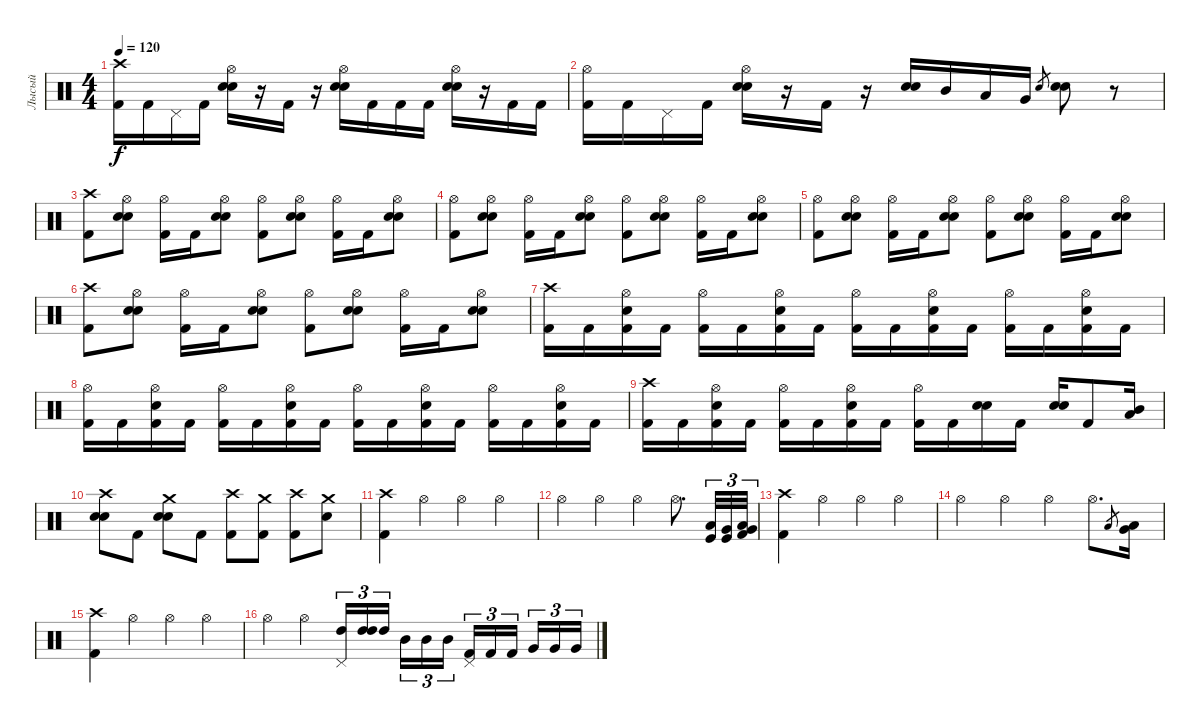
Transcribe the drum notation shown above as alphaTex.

\track ("Лысый" "Лысый") {instrument percussion}
\staff {score}
\articulation defaults
\ts (4 4)
\tempo 120
\clef neutral
\ks c
("Kick (hit) 2" "Crash high (hit)").16{dy f} "Kick (hit) 2".16 "Pedal Hi-Hat (hit)".16 "Kick (hit) 2".16 ("Snare (hit) 2" "Electric Snare (hit)" "Hi-Hat (open)").16 r.16 "Kick (hit) 2".16 r.16 ("Snare (hit) 2" "Electric Snare (hit)" "Hi-Hat (open)").16 "Kick (hit) 2".16 "Kick (hit) 2".16 "Kick (hit) 2".16 ("Snare (hit) 2" "Electric Snare (hit)" "Hi-Hat (open)").16 r.16 "Kick (hit) 2".16 "Kick (hit) 2".16 |
("Kick (hit) 2" "Hi-Hat (open)").16 "Kick (hit) 2".16 "Pedal Hi-Hat (hit)".16 "Kick (hit) 2".16 ("Snare (hit) 2" "Electric Snare (hit)" "Hi-Hat (open)").16 r.16 "Kick (hit) 2".16 r.16 ("Snare (hit) 2" "Electric Snare (hit)").16 "Mid Tom (hit)".16 "Low Tom (hit)".16 "Very Low Tom (hit)".16 "Snare (hit) 2".8{gr} ("Snare (hit) 2" "Electric Snare (hit)").8 r.8 |
("Kick (hit) 2" "Crash high (hit)").8 ("Snare (hit) 2" "Electric Snare (hit)" "Hi-Hat (open)").8 ("Kick (hit) 2" "Hi-Hat (open)").16 "Kick (hit) 2".16 ("Snare (hit) 2" "Electric Snare (hit)" "Hi-Hat (open)").8 ("Kick (hit) 2" "Hi-Hat (open)").8 ("Snare (hit) 2" "Electric Snare (hit)" "Hi-Hat (open)").8 ("Kick (hit) 2" "Hi-Hat (open)").16 "Kick (hit) 2".16 ("Snare (hit) 2" "Electric Snare (hit)" "Hi-Hat (open)").8 |
("Kick (hit) 2" "Hi-Hat (open)").8 ("Snare (hit) 2" "Electric Snare (hit)" "Hi-Hat (open)").8 ("Kick (hit) 2" "Hi-Hat (open)").16 "Kick (hit) 2".16 ("Snare (hit) 2" "Electric Snare (hit)" "Hi-Hat (open)").8 ("Kick (hit) 2" "Hi-Hat (open)").8 ("Snare (hit) 2" "Electric Snare (hit)" "Hi-Hat (open)").8 ("Kick (hit) 2" "Hi-Hat (open)").16 "Kick (hit) 2".16 ("Snare (hit) 2" "Electric Snare (hit)" "Hi-Hat (open)").8 |
("Kick (hit) 2" "Hi-Hat (open)").8 ("Snare (hit) 2" "Electric Snare (hit)" "Hi-Hat (open)").8 ("Kick (hit) 2" "Hi-Hat (open)").16 "Kick (hit) 2".16 ("Snare (hit) 2" "Electric Snare (hit)" "Hi-Hat (open)").8 ("Kick (hit) 2" "Hi-Hat (open)").8 ("Snare (hit) 2" "Electric Snare (hit)" "Hi-Hat (open)").8 ("Kick (hit) 2" "Hi-Hat (open)").16 "Kick (hit) 2".16 ("Snare (hit) 2" "Electric Snare (hit)" "Hi-Hat (open)").8 |
("Kick (hit) 2" "Crash high (hit)").8 ("Snare (hit) 2" "Electric Snare (hit)" "Hi-Hat (open)").8 ("Kick (hit) 2" "Hi-Hat (open)").16 "Kick (hit) 2".16 ("Snare (hit) 2" "Electric Snare (hit)" "Hi-Hat (open)").8 ("Kick (hit) 2" "Hi-Hat (open)").8 ("Snare (hit) 2" "Electric Snare (hit)" "Hi-Hat (open)").8 ("Kick (hit) 2" "Hi-Hat (open)").16 "Kick (hit) 2".16 ("Snare (hit) 2" "Electric Snare (hit)" "Hi-Hat (open)").8 |
("Kick (hit) 2" "Crash high (hit)").16 "Kick (hit) 2".16 ("Kick (hit) 2" "Snare (hit) 2" "Hi-Hat (open)").16 "Kick (hit) 2".16 ("Kick (hit) 2" "Hi-Hat (open)").16 "Kick (hit) 2".16 ("Kick (hit) 2" "Snare (hit) 2" "Hi-Hat (open)").16 "Kick (hit) 2".16 ("Kick (hit) 2" "Hi-Hat (open)").16 "Kick (hit) 2".16 ("Kick (hit) 2" "Snare (hit) 2" "Hi-Hat (open)").16 "Kick (hit) 2".16 ("Kick (hit) 2" "Hi-Hat (open)").16 "Kick (hit) 2".16 ("Kick (hit) 2" "Snare (hit) 2" "Hi-Hat (open)").16 "Kick (hit) 2".16 |
("Kick (hit) 2" "Hi-Hat (open)").16 "Kick (hit) 2".16 ("Kick (hit) 2" "Snare (hit) 2" "Hi-Hat (open)").16 "Kick (hit) 2".16 ("Kick (hit) 2" "Hi-Hat (open)").16 "Kick (hit) 2".16 ("Kick (hit) 2" "Snare (hit) 2" "Hi-Hat (open)").16 "Kick (hit) 2".16 ("Kick (hit) 2" "Hi-Hat (open)").16 "Kick (hit) 2".16 ("Kick (hit) 2" "Snare (hit) 2" "Hi-Hat (open)").16 "Kick (hit) 2".16 ("Kick (hit) 2" "Hi-Hat (open)").16 "Kick (hit) 2".16 ("Kick (hit) 2" "Snare (hit) 2" "Hi-Hat (open)").16 "Kick (hit) 2".16 |
("Kick (hit) 2" "Crash high (hit)").16 "Kick (hit) 2".16 ("Kick (hit) 2" "Snare (hit) 2" "Hi-Hat (open)").16 "Kick (hit) 2".16 ("Kick (hit) 2" "Hi-Hat (open)").16 "Kick (hit) 2".16 ("Kick (hit) 2" "Snare (hit) 2" "Hi-Hat (open)").16 "Kick (hit) 2".16 ("Kick (hit) 2" "Hi-Hat (open)").16 "Kick (hit) 2".16 ("Snare (hit) 2" "Electric Snare (hit)").16 "Kick (hit) 2".16 ("Snare (hit) 2" "Electric Snare (hit)").16 "Kick (hit) 2".8 ("Mid Tom (hit)" "Low Tom (hit)").16 |
("Snare (hit) 2" "Electric Snare (hit)" "Crash high (hit)").8 "Kick (hit) 2".8 ("Snare (hit) 2" "Electric Snare (hit)" "Crash medium (hit)").8 "Kick (hit) 2".8 ("Kick (hit) 2" "Crash high (hit)").8 ("Kick (hit) 2" "Crash medium (hit)").8 ("Kick (hit) 2" "Crash high (hit)").8 ("Snare (hit) 2" "Crash medium (hit)").8 |
("Kick (hit) 2" "Crash high (hit)").4 "Hi-Hat (open)".4 "Hi-Hat (open)".4 "Hi-Hat (open)".4 |
"Hi-Hat (open)".4 "Hi-Hat (open)".4 "Hi-Hat (open)".4 "Hi-Hat (open)".8{d} ("Low Tom (hit)" "Kick (hit)").32{tu (3 2)} ("Very Low Tom (hit)" "Kick (hit)").32{tu (3 2)} ("Very Low Tom (hit)" "Low Floor Tom (hit)" "Kick (hit) 2").32{tu (3 2)} |
("Kick (hit) 2" "Crash high (hit)").4 "Hi-Hat (open)".4 "Hi-Hat (open)".4 "Hi-Hat (open)".4 |
"Hi-Hat (open)".4 "Hi-Hat (open)".4 "Hi-Hat (open)".4 "Hi-Hat (open)".8{d} "Low Tom (hit)".8{gr} ("Low Tom (hit)" "Very Low Tom (hit)").16 |
("Kick (hit) 2" "Crash high (hit)").4 "Hi-Hat (open)".4 "Hi-Hat (open)".4 "Hi-Hat (open)".4 |
"Hi-Hat (open)".4 "Hi-Hat (open)".4 ("High Tom (hit)" "Pedal Hi-Hat (hit)").16{tu (3 2)} ("High Tom (hit)" "High Tom (hit)").16{tu (3 2)} "High Tom (hit)".16{tu (3 2) beam splitsecondary} "Mid Tom (hit)".16{tu (3 2)} "Mid Tom (hit)".16{tu (3 2)} "Mid Tom (hit)".16{tu (3 2)} ("Kick (hit) 2" "Pedal Hi-Hat (hit)").16{tu (3 2)} "Kick (hit) 2".16{tu (3 2)} "Kick (hit) 2".16{tu (3 2) beam splitsecondary} "Very Low Tom (hit)".16{tu (3 2)} "Very Low Tom (hit)".16{tu (3 2)} "Very Low Tom (hit)".16{tu (3 2)}
